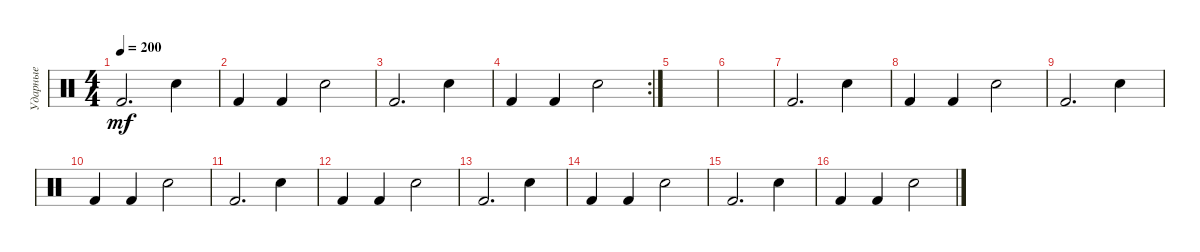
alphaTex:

\track ("Ударные" "Ударные") {instrument percussion}
\staff {score}
\articulation defaults
\ts (4 4)
\tempo 200
\clef neutral
\ks c "Kick (hit) 2".2{d dy mf} "Snare (hit) 2".4
|
"Kick (hit) 2".4 "Kick (hit) 2".4 "Snare (hit) 2".2 |
"Kick (hit) 2".2{d} "Snare (hit) 2".4 |
\rc 2 "Kick (hit) 2".4 "Kick (hit) 2".4 "Snare (hit) 2".2
|
|
|
"Kick (hit) 2".2{d} "Snare (hit) 2".4 |
"Kick (hit) 2".4 "Kick (hit) 2".4 "Snare (hit) 2".2 |
"Kick (hit) 2".2{d} "Snare (hit) 2".4 |
"Kick (hit) 2".4 "Kick (hit) 2".4 "Snare (hit) 2".2 |
"Kick (hit) 2".2{d} "Snare (hit) 2".4 |
"Kick (hit) 2".4 "Kick (hit) 2".4 "Snare (hit) 2".2 |
"Kick (hit) 2".2{d} "Snare (hit) 2".4 |
"Kick (hit) 2".4 "Kick (hit) 2".4 "Snare (hit) 2".2 |
"Kick (hit) 2".2{d} "Snare (hit) 2".4 |
"Kick (hit) 2".4 "Kick (hit) 2".4 "Snare (hit) 2".2
